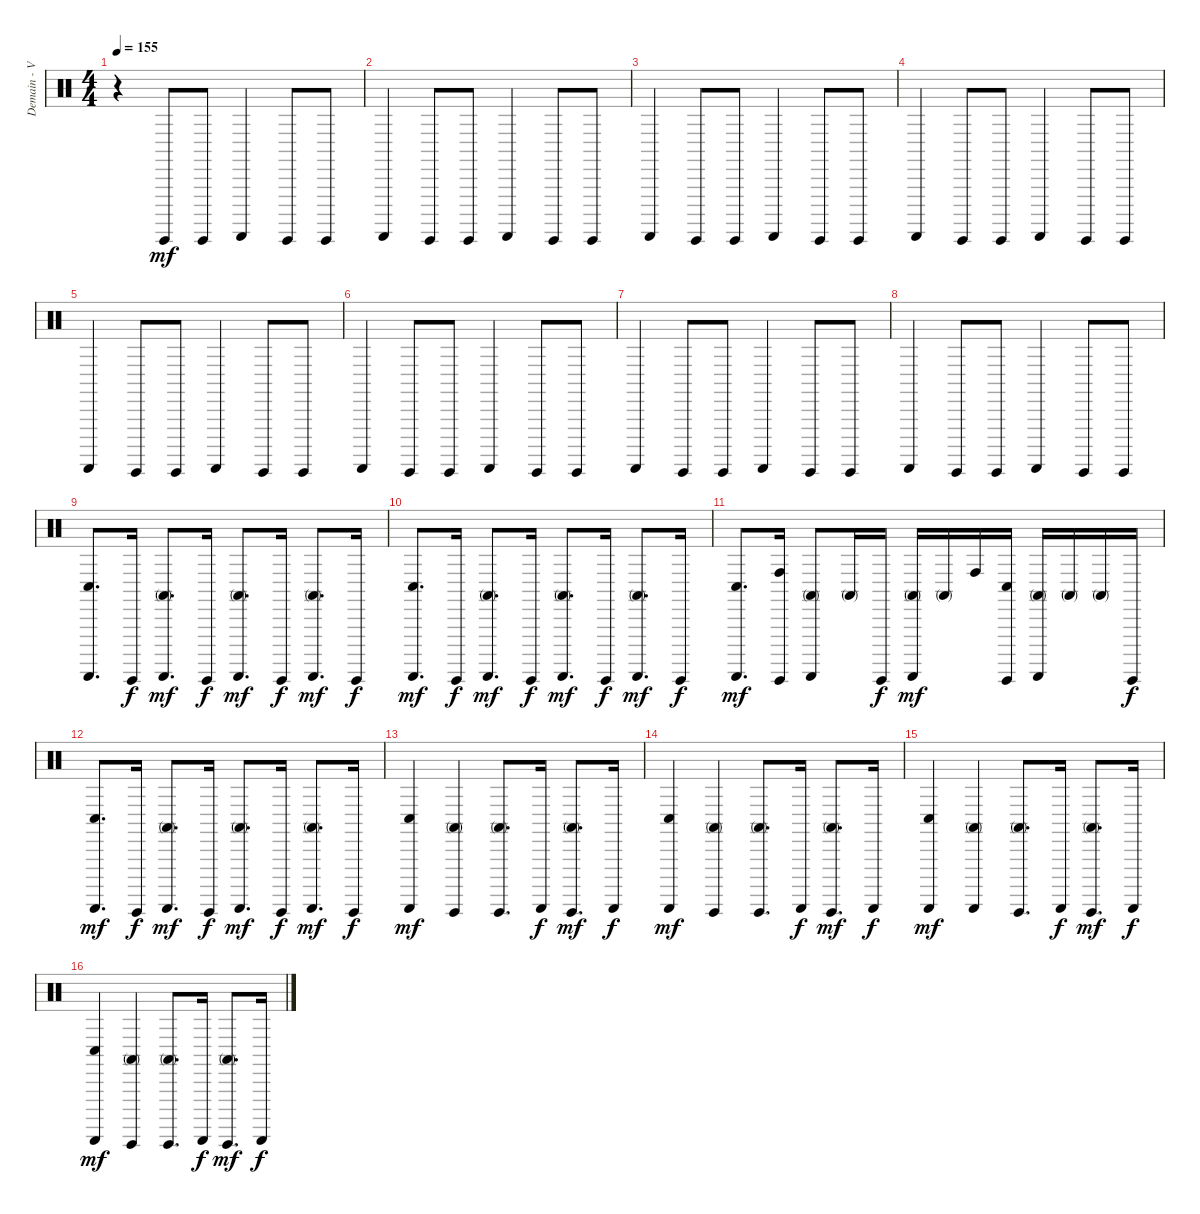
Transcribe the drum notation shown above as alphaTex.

\track ("Demain - Various Perc." "Demain - V") {instrument percussion}
\staff {score}
\articulation defaults
\ts (4 4)
\tempo 155
\clef neutral
\ks c
r.4{dy f} "Guiro (hit)".8{dy mf} "Guiro (hit)".8 "Guiro (scrap-return)".4 "Guiro (hit)".8 "Guiro (hit)".8 |
"Guiro (scrap-return)".4 "Guiro (hit)".8 "Guiro (hit)".8 "Guiro (scrap-return)".4 "Guiro (hit)".8 "Guiro (hit)".8 |
"Guiro (scrap-return)".4 "Guiro (hit)".8 "Guiro (hit)".8 "Guiro (scrap-return)".4 "Guiro (hit)".8 "Guiro (hit)".8 |
"Guiro (scrap-return)".4 "Guiro (hit)".8 "Guiro (hit)".8 "Guiro (scrap-return)".4 "Guiro (hit)".8 "Guiro (hit)".8 |
"Guiro (scrap-return)".4 "Guiro (hit)".8 "Guiro (hit)".8 "Guiro (scrap-return)".4 "Guiro (hit)".8 "Guiro (hit)".8 |
"Guiro (scrap-return)".4 "Guiro (hit)".8 "Guiro (hit)".8 "Guiro (scrap-return)".4 "Guiro (hit)".8 "Guiro (hit)".8 |
"Guiro (scrap-return)".4 "Guiro (hit)".8 "Guiro (hit)".8 "Guiro (scrap-return)".4 "Guiro (hit)".8 "Guiro (hit)".8 |
"Guiro (scrap-return)".4 "Guiro (hit)".8 "Guiro (hit)".8 "Guiro (scrap-return)".4 "Guiro (hit)".8 "Guiro (hit)".8 |
("Conga low (hit)" "Guiro (scrap-return)").8{d} "Guiro (hit)".16{dy f} ("Conga high (mute)" "Guiro (scrap-return)").8{d dy mf} "Guiro (hit)".16{dy f} ("Conga high (mute)" "Guiro (scrap-return)").8{d dy mf} "Guiro (hit)".16{dy f} ("Conga high (mute)" "Guiro (scrap-return)").8{d dy mf} "Guiro (hit)".16{dy f} |
("Conga low (hit)" "Guiro (scrap-return)").8{d dy mf} "Guiro (hit)".16{dy f} ("Conga high (mute)" "Guiro (scrap-return)").8{d dy mf} "Guiro (hit)".16{dy f} ("Conga high (mute)" "Guiro (scrap-return)").8{d dy mf} "Guiro (hit)".16{dy f} ("Conga high (mute)" "Guiro (scrap-return)").8{d dy mf} "Guiro (hit)".16{dy f} |
("Conga low (hit)" "Guiro (scrap-return)").8{d dy mf} ("Conga high (hit)" "Guiro (hit)").16 ("Conga high (mute)" "Guiro (scrap-return)").8 "Conga high (mute)".16 "Guiro (hit)".16{dy f} ("Conga high (mute)" "Guiro (scrap-return)").16{dy mf} "Conga high (mute)".16 "Conga high (hit)".16 ("Conga low (hit)" "Guiro (hit)").16 ("Conga high (mute)" "Guiro (scrap-return)").16 "Conga high (mute)".16 "Conga high (mute)".16 "Guiro (hit)".16{dy f} |
("Conga low (hit)" "Guiro (scrap-return)").8{d dy mf} "Guiro (hit)".16{dy f} ("Conga high (mute)" "Guiro (scrap-return)").8{d dy mf} "Guiro (hit)".16{dy f} ("Conga high (mute)" "Guiro (scrap-return)").8{d dy mf} "Guiro (hit)".16{dy f} ("Conga high (mute)" "Guiro (scrap-return)").8{d dy mf} "Guiro (hit)".16{dy f} |
("Conga low (hit)" "Guiro (scrap-return)").4{dy mf} ("Conga high (mute)" "Guiro (hit)").4 ("Conga high (mute)" "Guiro (hit)").8{d} "Guiro (scrap-return)".16{dy f} ("Conga high (mute)" "Guiro (hit)").8{d dy mf} "Guiro (scrap-return)".16{dy f} |
("Conga low (hit)" "Guiro (scrap-return)").4{dy mf} ("Conga high (mute)" "Guiro (hit)").4 ("Conga high (mute)" "Guiro (hit)").8{d} "Guiro (scrap-return)".16{dy f} ("Conga high (mute)" "Guiro (hit)").8{d dy mf} "Guiro (scrap-return)".16{dy f} |
("Conga low (hit)" "Guiro (scrap-return)").4{dy mf} ("Conga high (mute)" "Guiro (scrap-return)").4 ("Conga high (mute)" "Guiro (hit)").8{d} "Guiro (scrap-return)".16{dy f} ("Conga high (mute)" "Guiro (hit)").8{d dy mf} "Guiro (scrap-return)".16{dy f} |
("Conga low (hit)" "Guiro (scrap-return)").4{dy mf} ("Conga high (mute)" "Guiro (hit)").4 ("Conga high (mute)" "Guiro (hit)").8{d} "Guiro (scrap-return)".16{dy f} ("Conga high (mute)" "Guiro (hit)").8{d dy mf} "Guiro (scrap-return)".16{dy f}
